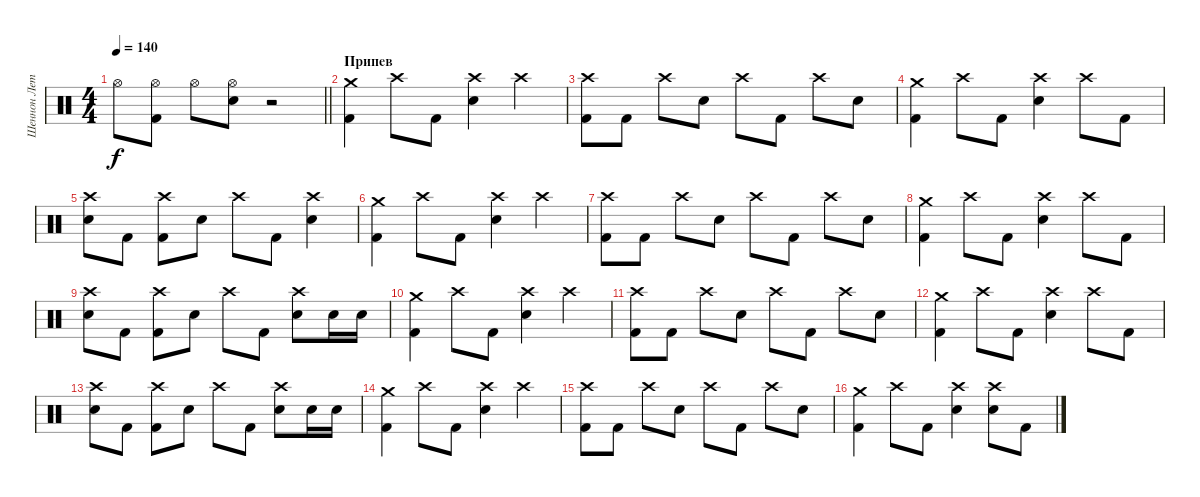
\track ("Шеннон Лето" "Шеннон Лет") {instrument percussion}
\staff {score}
\articulation defaults
\ts (4 4)
\tempo 140
\clef neutral
\barLineRight lightlight
\ks c "Hi-Hat (open)".8{dy f}
("Hi-Hat (open)" "Kick (hit) 2").8 "Hi-Hat (open)".8 ("Hi-Hat (open)" "Electric Snare (hit)").8 r.2 |
\section ("" "Припев")
("Crash medium (hit)" "Kick (hit) 2").4 "Crash high (hit)".8 "Kick (hit) 2".8 ("Crash high (hit)" "Electric Snare (hit)").4 "Crash high (hit)".4 |
("Crash high (hit)" "Kick (hit) 2").8 "Kick (hit) 2".8 "Crash high (hit)".8 "Electric Snare (hit)".8 "Crash high (hit)".8 "Kick (hit) 2".8 "Crash high (hit)".8 "Electric Snare (hit)".8 |
("Crash medium (hit)" "Kick (hit) 2").4 "Crash high (hit)".8 "Kick (hit) 2".8 ("Crash high (hit)" "Electric Snare (hit)").4 "Crash high (hit)".8 "Kick (hit) 2".8 |
("Crash high (hit)" "Electric Snare (hit)").8 "Kick (hit) 2".8 ("Crash high (hit)" "Kick (hit) 2").8 "Electric Snare (hit)".8 "Crash high (hit)".8 "Kick (hit) 2".8 ("Crash high (hit)" "Electric Snare (hit)").4 |
("Crash medium (hit)" "Kick (hit) 2").4 "Crash high (hit)".8 "Kick (hit) 2".8 ("Crash high (hit)" "Electric Snare (hit)").4 "Crash high (hit)".4 |
("Crash high (hit)" "Kick (hit) 2").8 "Kick (hit) 2".8 "Crash high (hit)".8 "Electric Snare (hit)".8 "Crash high (hit)".8 "Kick (hit) 2".8 "Crash high (hit)".8 "Electric Snare (hit)".8 |
("Crash medium (hit)" "Kick (hit) 2").4 "Crash high (hit)".8 "Kick (hit) 2".8 ("Crash high (hit)" "Electric Snare (hit)").4 "Crash high (hit)".8 "Kick (hit) 2".8 |
("Crash high (hit)" "Electric Snare (hit)").8 "Kick (hit) 2".8 ("Crash high (hit)" "Kick (hit) 2").8 "Electric Snare (hit)".8 "Crash high (hit)".8 "Kick (hit) 2".8 ("Crash high (hit)" "Electric Snare (hit)").8 "Electric Snare (hit)".16 "Electric Snare (hit)".16 |
("Crash medium (hit)" "Kick (hit) 2").4 "Crash high (hit)".8 "Kick (hit) 2".8 ("Crash high (hit)" "Electric Snare (hit)").4 "Crash high (hit)".4 |
("Crash high (hit)" "Kick (hit) 2").8 "Kick (hit) 2".8 "Crash high (hit)".8 "Electric Snare (hit)".8 "Crash high (hit)".8 "Kick (hit) 2".8 "Crash high (hit)".8 "Electric Snare (hit)".8 |
("Crash medium (hit)" "Kick (hit) 2").4 "Crash high (hit)".8 "Kick (hit) 2".8 ("Crash high (hit)" "Electric Snare (hit)").4 "Crash high (hit)".8 "Kick (hit) 2".8 |
("Crash high (hit)" "Electric Snare (hit)").8 "Kick (hit) 2".8 ("Crash high (hit)" "Kick (hit) 2").8 "Electric Snare (hit)".8 "Crash high (hit)".8 "Kick (hit) 2".8 ("Crash high (hit)" "Electric Snare (hit)").8 "Electric Snare (hit)".16 "Electric Snare (hit)".16 |
("Crash medium (hit)" "Kick (hit) 2").4 "Crash high (hit)".8 "Kick (hit) 2".8 ("Crash high (hit)" "Electric Snare (hit)").4 "Crash high (hit)".4 |
("Crash high (hit)" "Kick (hit) 2").8 "Kick (hit) 2".8 "Crash high (hit)".8 "Electric Snare (hit)".8 "Crash high (hit)".8 "Kick (hit) 2".8 "Crash high (hit)".8 "Electric Snare (hit)".8 |
("Crash medium (hit)" "Kick (hit) 2").4 "Crash high (hit)".8 "Kick (hit) 2".8 ("Crash high (hit)" "Electric Snare (hit)").4 ("Crash high (hit)" "Electric Snare (hit)").8 "Kick (hit) 2".8
